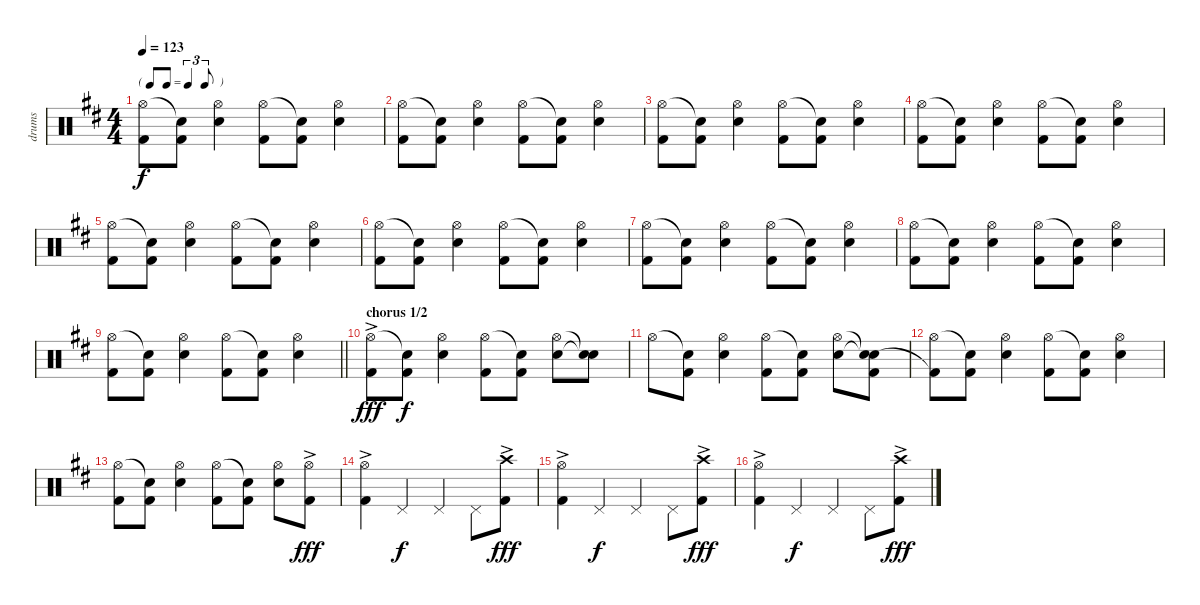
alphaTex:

\track ("drums" "drums") {instrument percussion}
\staff {score}
\articulation defaults
\ts (4 4)
\tf triplet8th
\tempo 123
\clef neutral
\ks d
("Hi-Hat (open)" "Kick (hit) 2").8{dy f} ("Snare (hit)"{t} "Kick (hit) 2").8 ("Hi-Hat (open)" "Snare (hit) 2").4 ("Hi-Hat (open)" "Kick (hit) 2").8 ("Snare (hit)"{t} "Kick (hit) 2").8 ("Hi-Hat (open)" "Snare (hit) 2").4 |
("Hi-Hat (open)" "Kick (hit) 2").8 ("Snare (hit)"{t} "Kick (hit) 2").8 ("Hi-Hat (open)" "Snare (hit) 2").4 ("Hi-Hat (open)" "Kick (hit) 2").8 ("Snare (hit)"{t} "Kick (hit) 2").8 ("Hi-Hat (open)" "Snare (hit) 2").4 |
("Hi-Hat (open)" "Kick (hit) 2").8 ("Snare (hit)"{t} "Kick (hit) 2").8 ("Hi-Hat (open)" "Snare (hit) 2").4 ("Hi-Hat (open)" "Kick (hit) 2").8 ("Snare (hit)"{t} "Kick (hit) 2").8 ("Hi-Hat (open)" "Snare (hit) 2").4 |
("Hi-Hat (open)" "Kick (hit) 2").8 ("Snare (hit)"{t} "Kick (hit) 2").8 ("Hi-Hat (open)" "Snare (hit) 2").4 ("Hi-Hat (open)" "Kick (hit) 2").8 ("Snare (hit)"{t} "Kick (hit) 2").8 ("Hi-Hat (open)" "Snare (hit) 2").4 |
("Hi-Hat (open)" "Kick (hit) 2").8 ("Snare (hit)"{t} "Kick (hit) 2").8 ("Hi-Hat (open)" "Snare (hit) 2").4 ("Hi-Hat (open)" "Kick (hit) 2").8 ("Snare (hit)"{t} "Kick (hit) 2").8 ("Hi-Hat (open)" "Snare (hit) 2").4 |
("Hi-Hat (open)" "Kick (hit) 2").8 ("Snare (hit)"{t} "Kick (hit) 2").8 ("Hi-Hat (open)" "Snare (hit) 2").4 ("Hi-Hat (open)" "Kick (hit) 2").8 ("Snare (hit)"{t} "Kick (hit) 2").8 ("Hi-Hat (open)" "Snare (hit) 2").4 |
("Hi-Hat (open)" "Kick (hit) 2").8 ("Snare (hit)"{t} "Kick (hit) 2").8 ("Hi-Hat (open)" "Snare (hit) 2").4 ("Hi-Hat (open)" "Kick (hit) 2").8 ("Snare (hit)"{t} "Kick (hit) 2").8 ("Hi-Hat (open)" "Snare (hit) 2").4 |
("Hi-Hat (open)" "Kick (hit) 2").8 ("Snare (hit)"{t} "Kick (hit) 2").8 ("Hi-Hat (open)" "Snare (hit) 2").4 ("Hi-Hat (open)" "Kick (hit) 2").8 ("Snare (hit)"{t} "Kick (hit) 2").8 ("Hi-Hat (open)" "Snare (hit) 2").4 |
\barLineRight lightlight
("Hi-Hat (open)" "Kick (hit) 2").8 ("Snare (hit)"{t} "Kick (hit) 2").8 ("Hi-Hat (open)" "Snare (hit) 2").4 ("Hi-Hat (open)" "Kick (hit) 2").8 ("Snare (hit)"{t} "Kick (hit) 2").8 ("Hi-Hat (open)" "Snare (hit) 2").4 |
\section ("" "chorus 1/2")
("Hi-Hat (open)"{ac} "Kick (hit) 2").8{dy fff} ("Snare (hit)"{t} "Kick (hit) 2").8{dy f} ("Hi-Hat (open)" "Snare (hit) 2").4 ("Hi-Hat (open)" "Kick (hit) 2").8 ("Snare (hit)"{t} "Kick (hit) 2").8 ("Hi-Hat (open)" "Snare (hit) 2").8 ("Snare (hit)"{t} "Snare (hit)"{t}).8 |
"Hi-Hat (open)".8 ("Snare (hit)"{t} "Kick (hit) 2").8 ("Hi-Hat (open)" "Snare (hit) 2").4 ("Hi-Hat (open)" "Kick (hit) 2").8 ("Snare (hit)"{t} "Kick (hit) 2").8 ("Hi-Hat (open)" "Snare (hit) 2").8 ("Snare (hit)"{t} "Snare (hit)"{t} "Kick (hit) 2").8 |
("Hi-Hat (open)" "Kick (hit) 2"{t}).8 ("Snare (hit)"{t} "Kick (hit) 2").8 ("Hi-Hat (open)" "Snare (hit) 2").4 ("Hi-Hat (open)" "Kick (hit) 2").8 ("Snare (hit)"{t} "Kick (hit) 2").8 ("Hi-Hat (open)" "Snare (hit) 2").4 |
("Hi-Hat (open)" "Kick (hit) 2").8 ("Snare (hit)"{t} "Kick (hit) 2").8 ("Hi-Hat (open)" "Snare (hit) 2").4 ("Hi-Hat (open)" "Kick (hit) 2").8 ("Snare (hit)"{t} "Kick (hit) 2").8 ("Hi-Hat (open)" "Snare (hit) 2").8 ("Hi-Hat (open)"{ac} "Kick (hit) 2").8{dy fff} |
("Hi-Hat (open)"{ac} "Kick (hit) 2").4 "Pedal Hi-Hat (hit)".4{dy f} "Pedal Hi-Hat (hit)".4 "Pedal Hi-Hat (hit)".8 ("Crash high (hit)"{ac} "Kick (hit) 2").8{dy fff} |
("Hi-Hat (open)"{ac} "Kick (hit) 2").4 "Pedal Hi-Hat (hit)".4{dy f} "Pedal Hi-Hat (hit)".4 "Pedal Hi-Hat (hit)".8 ("Crash high (hit)"{ac} "Kick (hit) 2").8{dy fff} |
("Hi-Hat (open)"{ac} "Kick (hit) 2").4 "Pedal Hi-Hat (hit)".4{dy f} "Pedal Hi-Hat (hit)".4 "Pedal Hi-Hat (hit)".8 ("Crash high (hit)"{ac} "Kick (hit) 2").8{dy fff}
